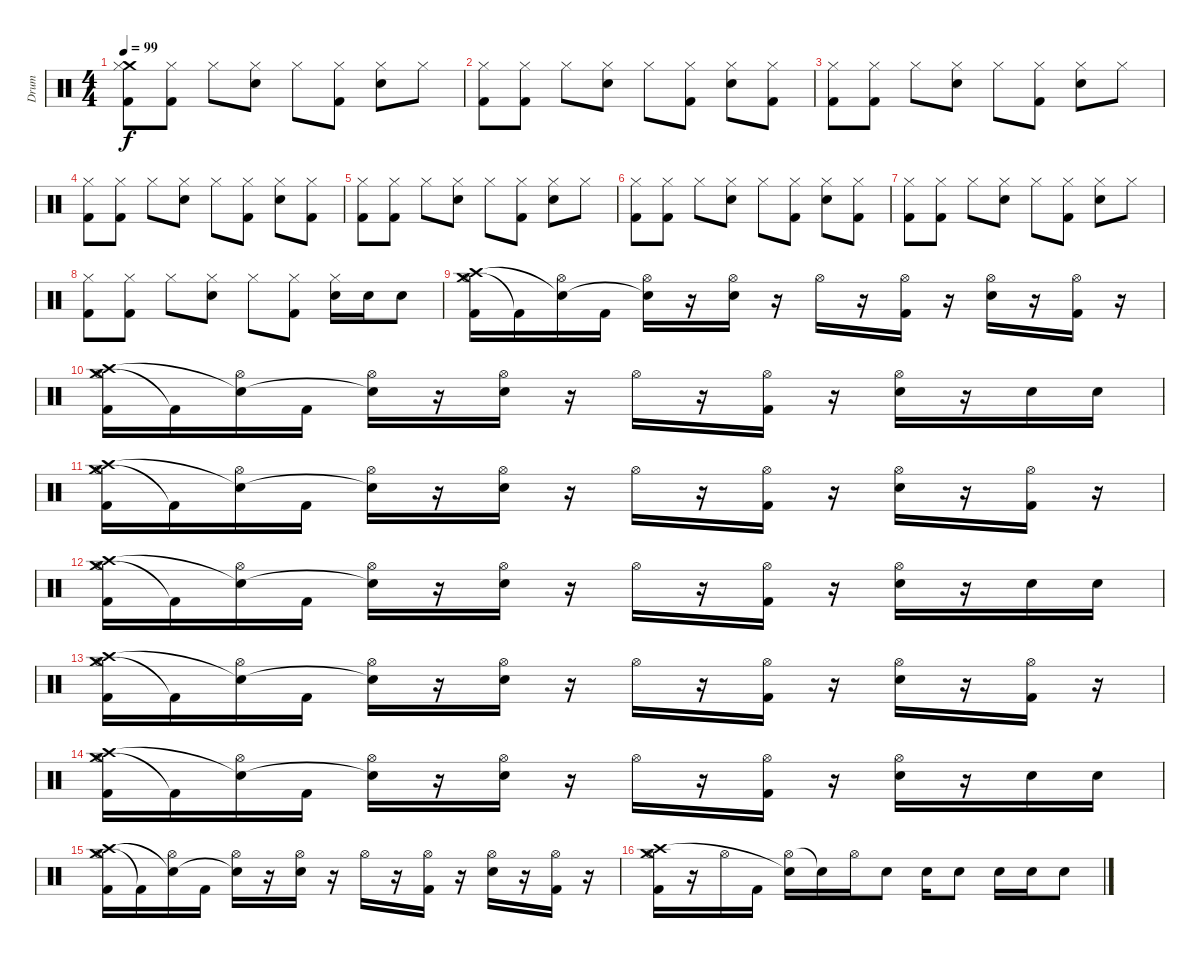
\track ("Drum" "Drum") {instrument percussion}
\staff {score}
\articulation defaults
\ts (4 4)
\tempo 99
\clef neutral
\ks c
("Crash medium (hit)" "Hi-Hat (closed)" "Kick (hit) 2").8{dy f} ("Hi-Hat (closed)" "Kick (hit) 2").8 "Hi-Hat (closed)".8 ("Hi-Hat (closed)" "Electric Snare (hit)").8 "Hi-Hat (closed)".8 ("Hi-Hat (closed)" "Kick (hit) 2").8 ("Hi-Hat (closed)" "Electric Snare (hit)").8 "Hi-Hat (closed)".8 |
("Hi-Hat (closed)" "Kick (hit) 2").8 ("Hi-Hat (closed)" "Kick (hit) 2").8 "Hi-Hat (closed)".8 ("Hi-Hat (closed)" "Electric Snare (hit)").8 "Hi-Hat (closed)".8 ("Hi-Hat (closed)" "Kick (hit) 2").8 ("Hi-Hat (closed)" "Electric Snare (hit)").8 ("Hi-Hat (closed)" "Kick (hit) 2").8 |
("Hi-Hat (closed)" "Kick (hit) 2").8 ("Hi-Hat (closed)" "Kick (hit) 2").8 "Hi-Hat (closed)".8 ("Hi-Hat (closed)" "Electric Snare (hit)").8 "Hi-Hat (closed)".8 ("Hi-Hat (closed)" "Kick (hit) 2").8 ("Hi-Hat (closed)" "Electric Snare (hit)").8 "Hi-Hat (closed)".8 |
("Hi-Hat (closed)" "Kick (hit) 2").8 ("Hi-Hat (closed)" "Kick (hit) 2").8 "Hi-Hat (closed)".8 ("Hi-Hat (closed)" "Electric Snare (hit)").8 "Hi-Hat (closed)".8 ("Hi-Hat (closed)" "Kick (hit) 2").8 ("Hi-Hat (closed)" "Electric Snare (hit)").8 ("Hi-Hat (closed)" "Kick (hit) 2").8 |
("Hi-Hat (closed)" "Kick (hit) 2").8 ("Hi-Hat (closed)" "Kick (hit) 2").8 "Hi-Hat (closed)".8 ("Hi-Hat (closed)" "Electric Snare (hit)").8 "Hi-Hat (closed)".8 ("Hi-Hat (closed)" "Kick (hit) 2").8 ("Hi-Hat (closed)" "Electric Snare (hit)").8 "Hi-Hat (closed)".8 |
("Hi-Hat (closed)" "Kick (hit) 2").8 ("Hi-Hat (closed)" "Kick (hit) 2").8 "Hi-Hat (closed)".8 ("Hi-Hat (closed)" "Electric Snare (hit)").8 "Hi-Hat (closed)".8 ("Hi-Hat (closed)" "Kick (hit) 2").8 ("Hi-Hat (closed)" "Electric Snare (hit)").8 ("Hi-Hat (closed)" "Kick (hit) 2").8 |
("Hi-Hat (closed)" "Kick (hit) 2").8 ("Hi-Hat (closed)" "Kick (hit) 2").8 "Hi-Hat (closed)".8 ("Hi-Hat (closed)" "Electric Snare (hit)").8 "Hi-Hat (closed)".8 ("Hi-Hat (closed)" "Kick (hit) 2").8 ("Hi-Hat (closed)" "Electric Snare (hit)").8 "Hi-Hat (closed)".8 |
("Hi-Hat (closed)" "Kick (hit) 2").8 ("Hi-Hat (closed)" "Kick (hit) 2").8 "Hi-Hat (closed)".8 ("Hi-Hat (closed)" "Electric Snare (hit)").8 "Hi-Hat (closed)".8 ("Hi-Hat (closed)" "Kick (hit) 2").8 ("Hi-Hat (closed)" "Electric Snare (hit)").16 "Electric Snare (hit)".16 "Electric Snare (hit)".8 |
("Crash medium (hit)" "Crash high (hit)" "Hi-Hat (open)" "Kick (hit) 2").16 "Kick (hit) 2"{t}.16 ("Hi-Hat (open)" "Snare (hit)"{t}).16 "Kick (hit) 2".16 ("Hi-Hat (open)" "Snare (hit)"{t}).16 r.16 ("Hi-Hat (open)" "Electric Snare (hit)").16 r.16 "Hi-Hat (open)".16 r.16 ("Hi-Hat (open)" "Kick (hit) 2").16 r.16 ("Hi-Hat (open)" "Electric Snare (hit)").16 r.16 ("Hi-Hat (open)" "Kick (hit) 2").16 r.16 |
("Crash medium (hit)" "Crash high (hit)" "Hi-Hat (open)" "Kick (hit) 2").16 "Kick (hit) 2"{t}.16 ("Hi-Hat (open)" "Snare (hit)"{t}).16 "Kick (hit) 2".16 ("Hi-Hat (open)" "Snare (hit)"{t}).16 r.16 ("Hi-Hat (open)" "Electric Snare (hit)").16 r.16 "Hi-Hat (open)".16 r.16 ("Hi-Hat (open)" "Kick (hit) 2").16 r.16 ("Hi-Hat (open)" "Electric Snare (hit)").16 r.16 "Electric Snare (hit)".16 "Electric Snare (hit)".16 |
("Crash medium (hit)" "Crash high (hit)" "Hi-Hat (open)" "Kick (hit) 2").16 "Kick (hit) 2"{t}.16 ("Hi-Hat (open)" "Snare (hit)"{t}).16 "Kick (hit) 2".16 ("Hi-Hat (open)" "Snare (hit)"{t}).16 r.16 ("Hi-Hat (open)" "Electric Snare (hit)").16 r.16 "Hi-Hat (open)".16 r.16 ("Hi-Hat (open)" "Kick (hit) 2").16 r.16 ("Hi-Hat (open)" "Electric Snare (hit)").16 r.16 ("Hi-Hat (open)" "Kick (hit) 2").16 r.16 |
("Crash medium (hit)" "Crash high (hit)" "Hi-Hat (open)" "Kick (hit) 2").16 "Kick (hit) 2"{t}.16 ("Hi-Hat (open)" "Snare (hit)"{t}).16 "Kick (hit) 2".16 ("Hi-Hat (open)" "Snare (hit)"{t}).16 r.16 ("Hi-Hat (open)" "Electric Snare (hit)").16 r.16 "Hi-Hat (open)".16 r.16 ("Hi-Hat (open)" "Kick (hit) 2").16 r.16 ("Hi-Hat (open)" "Electric Snare (hit)").16 r.16 "Electric Snare (hit)".16 "Electric Snare (hit)".16 |
("Crash medium (hit)" "Crash high (hit)" "Hi-Hat (open)" "Kick (hit) 2").16 "Kick (hit) 2"{t}.16 ("Hi-Hat (open)" "Snare (hit)"{t}).16 "Kick (hit) 2".16 ("Hi-Hat (open)" "Snare (hit)"{t}).16 r.16 ("Hi-Hat (open)" "Electric Snare (hit)").16 r.16 "Hi-Hat (open)".16 r.16 ("Hi-Hat (open)" "Kick (hit) 2").16 r.16 ("Hi-Hat (open)" "Electric Snare (hit)").16 r.16 ("Hi-Hat (open)" "Kick (hit) 2").16 r.16 |
("Crash medium (hit)" "Crash high (hit)" "Hi-Hat (open)" "Kick (hit) 2").16 "Kick (hit) 2"{t}.16 ("Hi-Hat (open)" "Snare (hit)"{t}).16 "Kick (hit) 2".16 ("Hi-Hat (open)" "Snare (hit)"{t}).16 r.16 ("Hi-Hat (open)" "Electric Snare (hit)").16 r.16 "Hi-Hat (open)".16 r.16 ("Hi-Hat (open)" "Kick (hit) 2").16 r.16 ("Hi-Hat (open)" "Electric Snare (hit)").16 r.16 "Electric Snare (hit)".16 "Electric Snare (hit)".16 |
("Crash medium (hit)" "Crash high (hit)" "Hi-Hat (open)" "Kick (hit) 2").16 "Kick (hit) 2"{t}.16 ("Hi-Hat (open)" "Snare (hit)"{t}).16 "Kick (hit) 2".16 ("Hi-Hat (open)" "Snare (hit)"{t}).16 r.16 ("Hi-Hat (open)" "Electric Snare (hit)").16 r.16 "Hi-Hat (open)".16 r.16 ("Hi-Hat (open)" "Kick (hit) 2").16 r.16 ("Hi-Hat (open)" "Electric Snare (hit)").16 r.16 ("Hi-Hat (open)" "Kick (hit) 2").16 r.16 |
("Crash medium (hit)" "Crash high (hit)" "Hi-Hat (open)" "Kick (hit) 2").16 r.16 "Hi-Hat (open)".16 "Kick (hit) 2".16 ("Hi-Hat (open)" "Snare (hit)"{t}).16 "Snare (hit)"{t}.16 "Hi-Hat (open)".16 "Electric Snare (hit)".8 "Electric Snare (hit)".16 "Electric Snare (hit)".8 "Electric Snare (hit)".16 "Electric Snare (hit)".16 "Electric Snare (hit)".8
